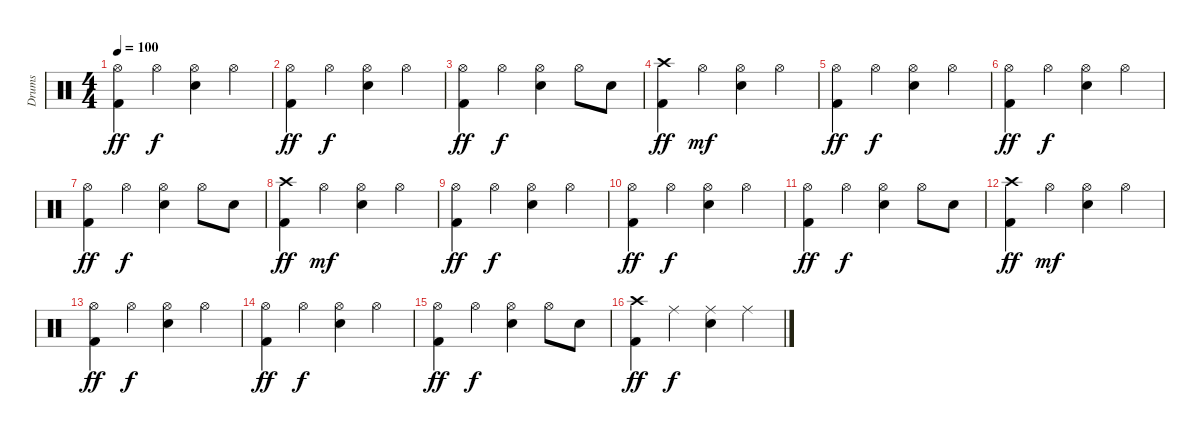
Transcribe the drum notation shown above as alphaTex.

\track ("Drums" "Drums") {instrument percussion}
\staff {score}
\articulation defaults
\ts (4 4)
\tempo 100
\clef neutral
\ks c
("Hi-Hat (open)" "Kick (hit) 2").4{dy ff} "Hi-Hat (open)".4{dy f} ("Hi-Hat (open)" "Electric Snare (hit)").4 "Hi-Hat (open)".4 |
("Hi-Hat (open)" "Kick (hit) 2").4{dy ff} "Hi-Hat (open)".4{dy f} ("Hi-Hat (open)" "Electric Snare (hit)").4 "Hi-Hat (open)".4 |
("Hi-Hat (open)" "Kick (hit) 2").4{dy ff} "Hi-Hat (open)".4{dy f} ("Hi-Hat (open)" "Electric Snare (hit)").4 "Hi-Hat (open)".8 "Electric Snare (hit)".8 |
("Crash high (hit)" "Kick (hit) 2").4{dy ff} "Hi-Hat (open)".4{dy mf} ("Hi-Hat (open)" "Electric Snare (hit)").4 "Hi-Hat (open)".4 |
("Hi-Hat (open)" "Kick (hit) 2").4{dy ff} "Hi-Hat (open)".4{dy f} ("Hi-Hat (open)" "Electric Snare (hit)").4 "Hi-Hat (open)".4 |
("Hi-Hat (open)" "Kick (hit) 2").4{dy ff} "Hi-Hat (open)".4{dy f} ("Hi-Hat (open)" "Electric Snare (hit)").4 "Hi-Hat (open)".4 |
("Hi-Hat (open)" "Kick (hit) 2").4{dy ff} "Hi-Hat (open)".4{dy f} ("Hi-Hat (open)" "Electric Snare (hit)").4 "Hi-Hat (open)".8 "Electric Snare (hit)".8 |
("Crash high (hit)" "Kick (hit) 2").4{dy ff} "Hi-Hat (open)".4{dy mf} ("Hi-Hat (open)" "Electric Snare (hit)").4 "Hi-Hat (open)".4 |
("Hi-Hat (open)" "Kick (hit) 2").4{dy ff} "Hi-Hat (open)".4{dy f} ("Hi-Hat (open)" "Electric Snare (hit)").4 "Hi-Hat (open)".4 |
("Hi-Hat (open)" "Kick (hit) 2").4{dy ff} "Hi-Hat (open)".4{dy f} ("Hi-Hat (open)" "Electric Snare (hit)").4 "Hi-Hat (open)".4 |
("Hi-Hat (open)" "Kick (hit) 2").4{dy ff} "Hi-Hat (open)".4{dy f} ("Hi-Hat (open)" "Electric Snare (hit)").4 "Hi-Hat (open)".8 "Electric Snare (hit)".8 |
("Crash high (hit)" "Kick (hit) 2").4{dy ff} "Hi-Hat (open)".4{dy mf} ("Hi-Hat (open)" "Electric Snare (hit)").4 "Hi-Hat (open)".4 |
("Hi-Hat (open)" "Kick (hit) 2").4{dy ff} "Hi-Hat (open)".4{dy f} ("Hi-Hat (open)" "Electric Snare (hit)").4 "Hi-Hat (open)".4 |
("Hi-Hat (open)" "Kick (hit) 2").4{dy ff} "Hi-Hat (open)".4{dy f} ("Hi-Hat (open)" "Electric Snare (hit)").4 "Hi-Hat (open)".4 |
("Hi-Hat (open)" "Kick (hit) 2").4{dy ff} "Hi-Hat (open)".4{dy f} ("Hi-Hat (open)" "Electric Snare (hit)").4 "Hi-Hat (open)".8 "Electric Snare (hit)".8 |
("Crash high (hit)" "Kick (hit) 2").4{dy ff} "Ride (middle)".4{dy f} ("Ride (middle)" "Electric Snare (hit)").4 "Ride (middle)".4
